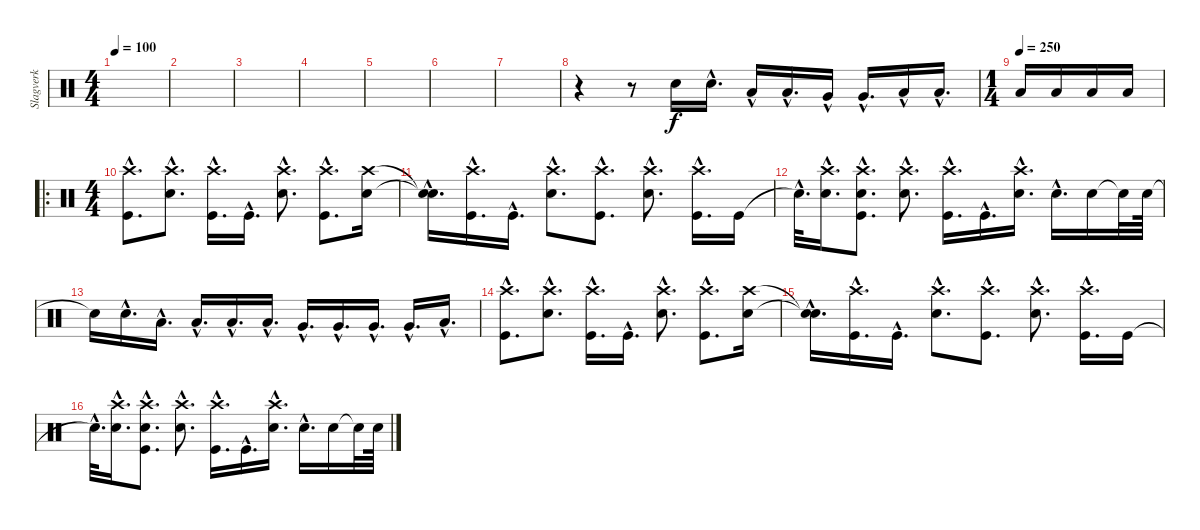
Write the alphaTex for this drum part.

\track ("Slagverk" "Slagverk") {instrument percussion}
\staff {score}
\articulation defaults
\ts (4 4)
\tempo 100
\clef neutral
\ks c
|
|
|
|
|
|
|
r.4 r.8 "Snare (hit) 2".16 "Snare (hit) 2"{hac}.16{d} "Low Tom (hit)"{hac}.16 "Low Tom (hit)"{hac}.16{d} "Very Low Tom (hit)"{hac}.16 "Very Low Tom (hit)"{hac}.16{d} "Low Floor Tom (hit)"{hac}.16 "Low Floor Tom (hit)"{hac}.16{d} |
\ts (1 4)
\tempo (250)
"Low Floor Tom (hit)".16 "Low Floor Tom (hit)".16 "Low Floor Tom (hit)".16 "Low Floor Tom (hit)".16 |
\ro
\ts (4 4)
("Crash high (hit)"{hac} "Kick (hit)"{hac}).8{d} ("Crash high (hit)"{hac} "Snare (hit) 2"{hac}).8{d} ("Crash high (hit)"{hac} "Kick (hit)"{hac}).16{d} "Kick (hit)"{hac}.16{d} ("Crash high (hit)"{hac} "Snare (hit) 2"{hac}).8{d} ("Crash high (hit)"{hac} "Kick (hit)"{hac}).8{d} ("Crash high (hit)" "Snare (hit) 2").16 |
("Snare (hit)"{hac t} "Snare (hit)"{hac t}).16{d} ("Crash high (hit)"{hac} "Kick (hit)"{hac}).16{d} "Kick (hit)"{hac}.16{d} ("Crash high (hit)"{hac} "Snare (hit) 2"{hac}).8{d} ("Crash high (hit)"{hac} "Kick (hit)"{hac}).8{d} ("Crash high (hit)"{hac} "Snare (hit) 2"{hac}).8{d} ("Crash high (hit)"{hac} "Kick (hit)"{hac}).16{d} "Kick (hit)".16 |
"Snare (hit)"{hac t}.32{d} ("Crash high (hit)"{hac} "Snare (hit) 2"{hac}).16{d} ("Crash high (hit)"{hac} "Kick (hit)"{hac} "Snare (hit)"{hac}).8{d} ("Crash high (hit)"{hac} "Snare (hit) 2"{hac}).8{d} ("Crash high (hit)"{hac} "Kick (hit)"{hac}).16{d} "Kick (hit)"{hac}.16{d} ("Crash high (hit)"{hac} "Snare (hit) 2"{hac}).16{d} "Electric Snare (hit)"{hac}.16{d} "Electric Snare (hit)".16 "Snare (hit)"{t}.32 "Electric Snare (hit)".64 |
"Snare (hit)"{t}.16 "Electric Snare (hit)"{hac}.16{d} "Low Tom (hit)"{hac}.16{d} "Low Tom (hit)"{hac}.16{d} "Low Tom (hit)"{hac}.16{d} "Low Tom (hit)"{hac}.16{d} "Very Low Tom (hit)"{hac}.16{d} "Very Low Tom (hit)"{hac}.16{d} "Very Low Tom (hit)"{hac}.16{d} "Very Low Tom (hit)"{hac}.16{d} "Low Floor Tom (hit)"{hac}.16{d} |
("Crash high (hit)"{hac} "Kick (hit)"{hac}).8{d} ("Crash high (hit)"{hac} "Snare (hit) 2"{hac}).8{d} ("Crash high (hit)"{hac} "Kick (hit)"{hac}).16{d} "Kick (hit)"{hac}.16{d} ("Crash high (hit)"{hac} "Snare (hit) 2"{hac}).8{d} ("Crash high (hit)"{hac} "Kick (hit)"{hac}).8{d} ("Crash high (hit)" "Snare (hit) 2").16 |
("Snare (hit)"{hac t} "Snare (hit)"{hac t}).16{d} ("Crash high (hit)"{hac} "Kick (hit)"{hac}).16{d} "Kick (hit)"{hac}.16{d} ("Crash high (hit)"{hac} "Snare (hit) 2"{hac}).8{d} ("Crash high (hit)"{hac} "Kick (hit)"{hac}).8{d} ("Crash high (hit)"{hac} "Snare (hit) 2"{hac}).8{d} ("Crash high (hit)"{hac} "Kick (hit)"{hac}).16{d} "Kick (hit)".16 |
"Snare (hit)"{hac t}.32{d} ("Crash high (hit)"{hac} "Snare (hit) 2"{hac}).16{d} ("Crash high (hit)"{hac} "Kick (hit)"{hac} "Snare (hit)"{hac}).8{d} ("Crash high (hit)"{hac} "Snare (hit) 2"{hac}).8{d} ("Crash high (hit)"{hac} "Kick (hit)"{hac}).16{d} "Kick (hit)"{hac}.16{d} ("Crash high (hit)"{hac} "Snare (hit) 2"{hac}).16{d} "Electric Snare (hit)"{hac}.16{d} "Electric Snare (hit)".16 "Snare (hit)"{t}.32 "Electric Snare (hit)".64
